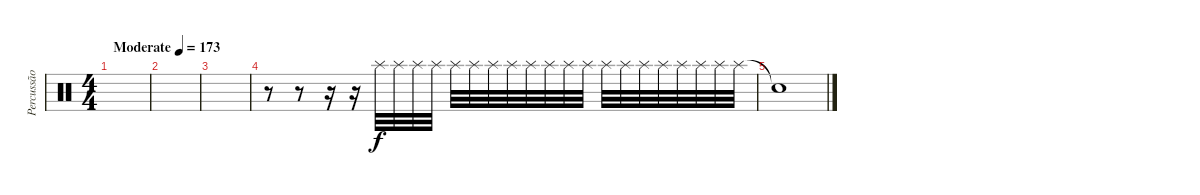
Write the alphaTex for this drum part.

\track ("Percussão" "Percussão") {instrument percussion}
\staff {score}
\articulation defaults
\ts (4 4)
\tempo (173 "Moderate")
\clef neutral
\ks c
|
|
|
r.8 r.8 r.16 r.16 "Splash (hit)".32 "Splash (hit)".32 "Splash (hit)".32 "Splash (hit)".32 "Splash (hit)".32 "Splash (hit)".32 "Splash (hit)".32 "Splash (hit)".32 "Splash (hit)".32 "Splash (hit)".32 "Splash (hit)".32 "Splash (hit)".32 "Splash (hit)".32 "Splash (hit)".32 "Splash (hit)".32 "Splash (hit)".32 "Splash (hit)".32 "Splash (hit)".32 "Splash (hit)".32 "Splash (hit)".32 |
"Snare (hit)"{t}.1
